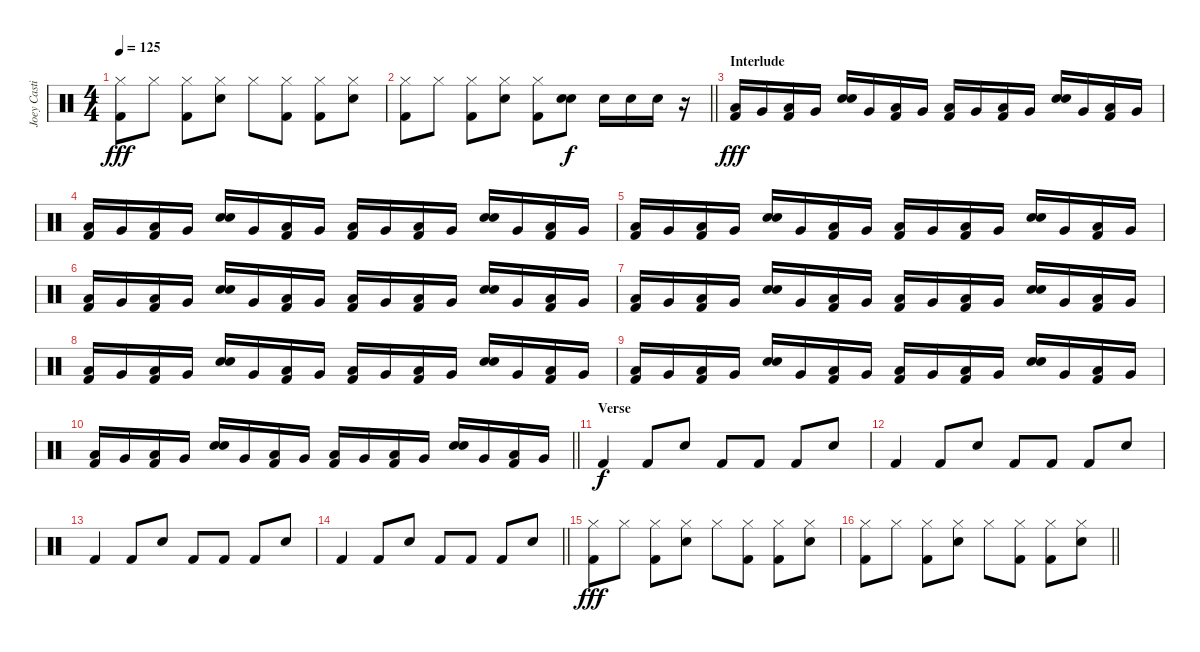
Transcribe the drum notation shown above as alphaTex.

\track ("Joey Castillo" "Joey Casti") {instrument percussion}
\staff {score}
\articulation defaults
\ts (4 4)
\tempo 125
\clef neutral
\ks c
("Hi-Hat (closed)" "Kick (hit) 2").8{dy fff} "Hi-Hat (closed)".8 ("Hi-Hat (closed)" "Kick (hit) 2").8 ("Hi-Hat (closed)" "Electric Snare (hit)").8 "Hi-Hat (closed)".8 ("Hi-Hat (closed)" "Kick (hit) 2").8 ("Hi-Hat (closed)" "Kick (hit) 2").8 ("Hi-Hat (closed)" "Electric Snare (hit)").8 |
\barLineRight lightlight
("Hi-Hat (closed)" "Kick (hit) 2").8 "Hi-Hat (closed)".8 ("Hi-Hat (closed)" "Kick (hit) 2").8 ("Hi-Hat (closed)" "Electric Snare (hit)").8 ("Hi-Hat (closed)" "Kick (hit) 2").8 ("Electric Snare (hit)" "Electric Snare (hit)").8{bu 240 dy f} "Electric Snare (hit)".16 "Electric Snare (hit)".16 "Electric Snare (hit)".16 r.16 |
\section ("" "Interlude")
("Low Tom (hit)" "Kick (hit) 2").16{dy fff} "Very Low Tom (hit)".16 ("Low Tom (hit)" "Kick (hit) 2").16 "Very Low Tom (hit)".16 ("Electric Snare (hit)" "Electric Snare (hit)").16{bu 480} "Very Low Tom (hit)".16 ("Low Tom (hit)" "Kick (hit) 2").16 "Very Low Tom (hit)".16 ("Low Tom (hit)" "Kick (hit) 2").16 "Very Low Tom (hit)".16 ("Low Tom (hit)" "Kick (hit) 2").16 "Very Low Tom (hit)".16 ("Electric Snare (hit)" "Electric Snare (hit)").16{bu 480} "Very Low Tom (hit)".16 ("Low Tom (hit)" "Kick (hit) 2").16 "Very Low Tom (hit)".16 |
("Low Tom (hit)" "Kick (hit) 2").16 "Very Low Tom (hit)".16 ("Low Tom (hit)" "Kick (hit) 2").16 "Very Low Tom (hit)".16 ("Electric Snare (hit)" "Electric Snare (hit)").16{bu 480} "Very Low Tom (hit)".16 ("Low Tom (hit)" "Kick (hit) 2").16 "Very Low Tom (hit)".16 ("Low Tom (hit)" "Kick (hit) 2").16 "Very Low Tom (hit)".16 ("Low Tom (hit)" "Kick (hit) 2").16 "Very Low Tom (hit)".16 ("Electric Snare (hit)" "Electric Snare (hit)").16{bu 480} "Very Low Tom (hit)".16 ("Low Tom (hit)" "Kick (hit) 2").16 "Very Low Tom (hit)".16 |
("Low Tom (hit)" "Kick (hit) 2").16 "Very Low Tom (hit)".16 ("Low Tom (hit)" "Kick (hit) 2").16 "Very Low Tom (hit)".16 ("Electric Snare (hit)" "Electric Snare (hit)").16{bu 480} "Very Low Tom (hit)".16 ("Low Tom (hit)" "Kick (hit) 2").16 "Very Low Tom (hit)".16 ("Low Tom (hit)" "Kick (hit) 2").16 "Very Low Tom (hit)".16 ("Low Tom (hit)" "Kick (hit) 2").16 "Very Low Tom (hit)".16 ("Electric Snare (hit)" "Electric Snare (hit)").16{bu 480} "Very Low Tom (hit)".16 ("Low Tom (hit)" "Kick (hit) 2").16 "Very Low Tom (hit)".16 |
("Low Tom (hit)" "Kick (hit) 2").16 "Very Low Tom (hit)".16 ("Low Tom (hit)" "Kick (hit) 2").16 "Very Low Tom (hit)".16 ("Electric Snare (hit)" "Electric Snare (hit)").16{bu 480} "Very Low Tom (hit)".16 ("Low Tom (hit)" "Kick (hit) 2").16 "Very Low Tom (hit)".16 ("Low Tom (hit)" "Kick (hit) 2").16 "Very Low Tom (hit)".16 ("Low Tom (hit)" "Kick (hit) 2").16 "Very Low Tom (hit)".16 ("Electric Snare (hit)" "Electric Snare (hit)").16{bu 480} "Very Low Tom (hit)".16 ("Low Tom (hit)" "Kick (hit) 2").16 "Very Low Tom (hit)".16 |
("Low Tom (hit)" "Kick (hit) 2").16 "Very Low Tom (hit)".16 ("Low Tom (hit)" "Kick (hit) 2").16 "Very Low Tom (hit)".16 ("Electric Snare (hit)" "Electric Snare (hit)").16{bu 480} "Very Low Tom (hit)".16 ("Low Tom (hit)" "Kick (hit) 2").16 "Very Low Tom (hit)".16 ("Low Tom (hit)" "Kick (hit) 2").16 "Very Low Tom (hit)".16 ("Low Tom (hit)" "Kick (hit) 2").16 "Very Low Tom (hit)".16 ("Electric Snare (hit)" "Electric Snare (hit)").16{bu 480} "Very Low Tom (hit)".16 ("Low Tom (hit)" "Kick (hit) 2").16 "Very Low Tom (hit)".16 |
("Low Tom (hit)" "Kick (hit) 2").16 "Very Low Tom (hit)".16 ("Low Tom (hit)" "Kick (hit) 2").16 "Very Low Tom (hit)".16 ("Electric Snare (hit)" "Electric Snare (hit)").16{bu 480} "Very Low Tom (hit)".16 ("Low Tom (hit)" "Kick (hit) 2").16 "Very Low Tom (hit)".16 ("Low Tom (hit)" "Kick (hit) 2").16 "Very Low Tom (hit)".16 ("Low Tom (hit)" "Kick (hit) 2").16 "Very Low Tom (hit)".16 ("Electric Snare (hit)" "Electric Snare (hit)").16{bu 480} "Very Low Tom (hit)".16 ("Low Tom (hit)" "Kick (hit) 2").16 "Very Low Tom (hit)".16 |
("Low Tom (hit)" "Kick (hit) 2").16 "Very Low Tom (hit)".16 ("Low Tom (hit)" "Kick (hit) 2").16 "Very Low Tom (hit)".16 ("Electric Snare (hit)" "Electric Snare (hit)").16{bu 480} "Very Low Tom (hit)".16 ("Low Tom (hit)" "Kick (hit) 2").16 "Very Low Tom (hit)".16 ("Low Tom (hit)" "Kick (hit) 2").16 "Very Low Tom (hit)".16 ("Low Tom (hit)" "Kick (hit) 2").16 "Very Low Tom (hit)".16 ("Electric Snare (hit)" "Electric Snare (hit)").16{bu 480} "Very Low Tom (hit)".16 ("Low Tom (hit)" "Kick (hit) 2").16 "Very Low Tom (hit)".16 |
\barLineRight lightlight
("Low Tom (hit)" "Kick (hit) 2").16 "Very Low Tom (hit)".16 ("Low Tom (hit)" "Kick (hit) 2").16 "Very Low Tom (hit)".16 ("Electric Snare (hit)" "Electric Snare (hit)").16{bu 480} "Very Low Tom (hit)".16 ("Low Tom (hit)" "Kick (hit) 2").16 "Very Low Tom (hit)".16 ("Low Tom (hit)" "Kick (hit) 2").16 "Very Low Tom (hit)".16 ("Low Tom (hit)" "Kick (hit) 2").16 "Very Low Tom (hit)".16 ("Electric Snare (hit)" "Electric Snare (hit)").16{bu 480} "Very Low Tom (hit)".16 ("Low Tom (hit)" "Kick (hit) 2").16 "Very Low Tom (hit)".16 |
\section ("" "Verse")
"Kick (hit) 2".4{dy f} "Kick (hit) 2".8 "Electric Snare (hit)".8 "Kick (hit) 2".8 "Kick (hit) 2".8 "Kick (hit) 2".8 "Electric Snare (hit)".8 |
"Kick (hit) 2".4 "Kick (hit) 2".8 "Electric Snare (hit)".8 "Kick (hit) 2".8 "Kick (hit) 2".8 "Kick (hit) 2".8 "Electric Snare (hit)".8 |
"Kick (hit) 2".4 "Kick (hit) 2".8 "Electric Snare (hit)".8 "Kick (hit) 2".8 "Kick (hit) 2".8 "Kick (hit) 2".8 "Electric Snare (hit)".8 |
\barLineRight lightlight "Kick (hit) 2".4 "Kick (hit) 2".8 "Electric Snare (hit)".8 "Kick (hit) 2".8 "Kick (hit) 2".8 "Kick (hit) 2".8 "Electric Snare (hit)".8
|
("Hi-Hat (closed)" "Kick (hit) 2").8{dy fff} "Hi-Hat (closed)".8 ("Hi-Hat (closed)" "Kick (hit) 2").8 ("Hi-Hat (closed)" "Electric Snare (hit)").8 "Hi-Hat (closed)".8 ("Hi-Hat (closed)" "Kick (hit) 2").8 ("Hi-Hat (closed)" "Kick (hit) 2").8 ("Hi-Hat (closed)" "Electric Snare (hit)").8 |
\barLineRight lightlight
("Hi-Hat (closed)" "Kick (hit) 2").8 "Hi-Hat (closed)".8 ("Hi-Hat (closed)" "Kick (hit) 2").8 ("Hi-Hat (closed)" "Electric Snare (hit)").8 "Hi-Hat (closed)".8 ("Hi-Hat (closed)" "Kick (hit) 2").8 ("Hi-Hat (closed)" "Kick (hit) 2").8 ("Hi-Hat (closed)" "Electric Snare (hit)").8
